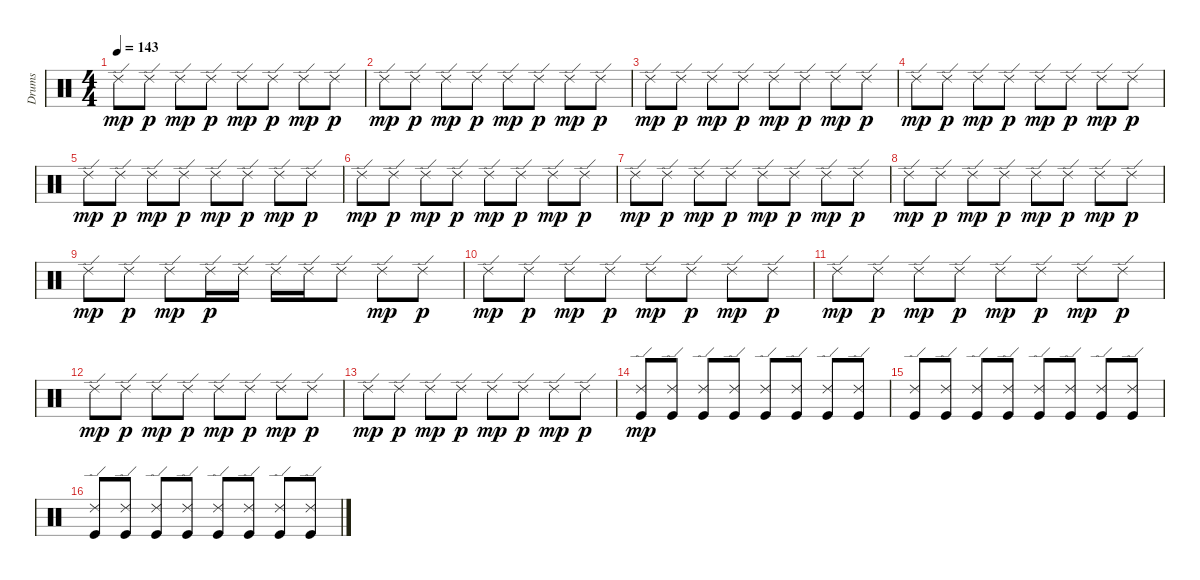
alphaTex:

\track ("Drums" "Drums") {instrument percussion}
\staff {score}
\articulation defaults
\ts (4 4)
\tempo 143
\clef neutral
\ks c "Ride (edge) 2".8{dy mp} "Ride (edge) 2".8{dy p} "Ride (edge) 2".8{dy mp} "Ride (edge) 2".8{dy p} "Ride (edge) 2".8{dy mp} "Ride (edge) 2".8{dy p} "Ride (edge) 2".8{dy mp} "Ride (edge) 2".8{dy p}
|
"Ride (edge) 2".8{dy mp} "Ride (edge) 2".8{dy p} "Ride (edge) 2".8{dy mp} "Ride (edge) 2".8{dy p} "Ride (edge) 2".8{dy mp} "Ride (edge) 2".8{dy p} "Ride (edge) 2".8{dy mp} "Ride (edge) 2".8{dy p} |
"Ride (edge) 2".8{dy mp} "Ride (edge) 2".8{dy p} "Ride (edge) 2".8{dy mp} "Ride (edge) 2".8{dy p} "Ride (edge) 2".8{dy mp} "Ride (edge) 2".8{dy p} "Ride (edge) 2".8{dy mp} "Ride (edge) 2".8{dy p} |
"Ride (edge) 2".8{dy mp} "Ride (edge) 2".8{dy p} "Ride (edge) 2".8{dy mp} "Ride (edge) 2".8{dy p} "Ride (edge) 2".8{dy mp} "Ride (edge) 2".8{dy p} "Ride (edge) 2".8{dy mp} "Ride (edge) 2".8{dy p} |
"Ride (edge) 2".8{dy mp} "Ride (edge) 2".8{dy p} "Ride (edge) 2".8{dy mp} "Ride (edge) 2".8{dy p} "Ride (edge) 2".8{dy mp} "Ride (edge) 2".8{dy p} "Ride (edge) 2".8{dy mp} "Ride (edge) 2".8{dy p} |
"Ride (edge) 2".8{dy mp} "Ride (edge) 2".8{dy p} "Ride (edge) 2".8{dy mp} "Ride (edge) 2".8{dy p} "Ride (edge) 2".8{dy mp} "Ride (edge) 2".8{dy p} "Ride (edge) 2".8{dy mp} "Ride (edge) 2".8{dy p} |
"Ride (edge) 2".8{dy mp} "Ride (edge) 2".8{dy p} "Ride (edge) 2".8{dy mp} "Ride (edge) 2".8{dy p} "Ride (edge) 2".8{dy mp} "Ride (edge) 2".8{dy p} "Ride (edge) 2".8{dy mp} "Ride (edge) 2".8{dy p} |
"Ride (edge) 2".8{dy mp} "Ride (edge) 2".8{dy p} "Ride (edge) 2".8{dy mp} "Ride (edge) 2".8{dy p} "Ride (edge) 2".8{dy mp} "Ride (edge) 2".8{dy p} "Ride (edge) 2".8{dy mp} "Ride (edge) 2".8{dy p} |
"Ride (edge) 2".8{dy mp} "Ride (edge) 2".8{dy p} "Ride (edge) 2".8{dy mp} "Ride (edge) 2".16{dy p} "Ride (edge) 2".16 "Ride (edge) 2".16 "Ride (edge) 2".16 "Ride (edge) 2".8 "Ride (edge) 2".8{dy mp} "Ride (edge) 2".8{dy p} |
"Ride (edge) 2".8{dy mp} "Ride (edge) 2".8{dy p} "Ride (edge) 2".8{dy mp} "Ride (edge) 2".8{dy p} "Ride (edge) 2".8{dy mp} "Ride (edge) 2".8{dy p} "Ride (edge) 2".8{dy mp} "Ride (edge) 2".8{dy p} |
"Ride (edge) 2".8{dy mp} "Ride (edge) 2".8{dy p} "Ride (edge) 2".8{dy mp} "Ride (edge) 2".8{dy p} "Ride (edge) 2".8{dy mp} "Ride (edge) 2".8{dy p} "Ride (edge) 2".8{dy mp} "Ride (edge) 2".8{dy p} |
"Ride (edge) 2".8{dy mp} "Ride (edge) 2".8{dy p} "Ride (edge) 2".8{dy mp} "Ride (edge) 2".8{dy p} "Ride (edge) 2".8{dy mp} "Ride (edge) 2".8{dy p} "Ride (edge) 2".8{dy mp} "Ride (edge) 2".8{dy p} |
"Ride (edge) 2".8{dy mp} "Ride (edge) 2".8{dy p} "Ride (edge) 2".8{dy mp} "Ride (edge) 2".8{dy p} "Ride (edge) 2".8{dy mp} "Ride (edge) 2".8{dy p} "Ride (edge) 2".8{dy mp} "Ride (edge) 2".8{dy p} |
("Ride (edge) 2" "Kick (hit)").8{dy mp} ("Ride (edge) 2" "Kick (hit)").8 ("Ride (edge) 2" "Kick (hit)").8 ("Ride (edge) 2" "Kick (hit)").8 ("Ride (edge) 2" "Kick (hit)").8 ("Ride (edge) 2" "Kick (hit)").8 ("Ride (edge) 2" "Kick (hit)").8 ("Ride (edge) 2" "Kick (hit)").8 |
("Ride (edge) 2" "Kick (hit)").8 ("Ride (edge) 2" "Kick (hit)").8 ("Ride (edge) 2" "Kick (hit)").8 ("Ride (edge) 2" "Kick (hit)").8 ("Ride (edge) 2" "Kick (hit)").8 ("Ride (edge) 2" "Kick (hit)").8 ("Ride (edge) 2" "Kick (hit)").8 ("Ride (edge) 2" "Kick (hit)").8 |
("Ride (edge) 2" "Kick (hit)").8 ("Ride (edge) 2" "Kick (hit)").8 ("Ride (edge) 2" "Kick (hit)").8 ("Ride (edge) 2" "Kick (hit)").8 ("Ride (edge) 2" "Kick (hit)").8 ("Ride (edge) 2" "Kick (hit)").8 ("Ride (edge) 2" "Kick (hit)").8 ("Ride (edge) 2" "Kick (hit)").8
